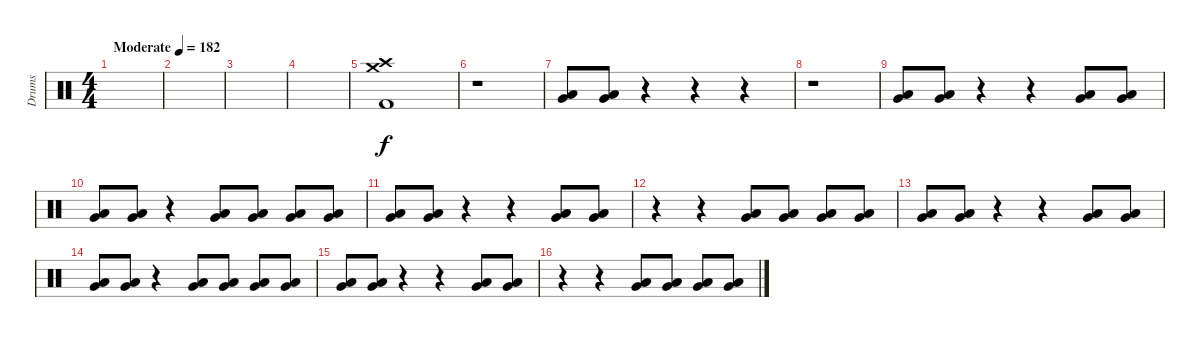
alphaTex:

\track ("Drums" "Drums") {instrument percussion}
\staff
\articulation defaults
\ts (4 4)
\tempo (182 "Moderate")
\clef neutral
\ks c
|
|
|
|
("Crash medium (hit)" "Crash high (hit)" "Kick (hit) 2").1 |
r.1 |
("Low Floor Tom (hit)" "Very Low Tom (hit)").8 ("Low Floor Tom (hit)" "Very Low Tom (hit)").8 r.4 r.4 r.4 |
r.1 |
("Low Floor Tom (hit)" "Very Low Tom (hit)").8 ("Low Floor Tom (hit)" "Very Low Tom (hit)").8 r.4 r.4 ("Low Floor Tom (hit)" "Very Low Tom (hit)").8 ("Low Floor Tom (hit)" "Very Low Tom (hit)").8 |
("Low Floor Tom (hit)" "Very Low Tom (hit)").8 ("Low Floor Tom (hit)" "Very Low Tom (hit)").8 r.4 ("Low Floor Tom (hit)" "Very Low Tom (hit)").8 ("Low Floor Tom (hit)" "Very Low Tom (hit)").8 ("Low Floor Tom (hit)" "Very Low Tom (hit)").8 ("Low Floor Tom (hit)" "Very Low Tom (hit)").8 |
("Low Floor Tom (hit)" "Very Low Tom (hit)").8 ("Low Floor Tom (hit)" "Very Low Tom (hit)").8 r.4 r.4 ("Low Floor Tom (hit)" "Very Low Tom (hit)").8 ("Low Floor Tom (hit)" "Very Low Tom (hit)").8 |
r.4 r.4 ("Low Floor Tom (hit)" "Very Low Tom (hit)").8 ("Low Floor Tom (hit)" "Very Low Tom (hit)").8 ("Low Floor Tom (hit)" "Very Low Tom (hit)").8 ("Low Floor Tom (hit)" "Very Low Tom (hit)").8 |
("Low Floor Tom (hit)" "Very Low Tom (hit)").8 ("Low Floor Tom (hit)" "Very Low Tom (hit)").8 r.4 r.4 ("Low Floor Tom (hit)" "Very Low Tom (hit)").8 ("Low Floor Tom (hit)" "Very Low Tom (hit)").8 |
("Low Floor Tom (hit)" "Very Low Tom (hit)").8 ("Low Floor Tom (hit)" "Very Low Tom (hit)").8 r.4 ("Low Floor Tom (hit)" "Very Low Tom (hit)").8 ("Low Floor Tom (hit)" "Very Low Tom (hit)").8 ("Low Floor Tom (hit)" "Very Low Tom (hit)").8 ("Low Floor Tom (hit)" "Very Low Tom (hit)").8 |
("Low Floor Tom (hit)" "Very Low Tom (hit)").8 ("Low Floor Tom (hit)" "Very Low Tom (hit)").8 r.4 r.4 ("Low Floor Tom (hit)" "Very Low Tom (hit)").8 ("Low Floor Tom (hit)" "Very Low Tom (hit)").8 |
r.4 r.4 ("Low Floor Tom (hit)" "Very Low Tom (hit)").8 ("Low Floor Tom (hit)" "Very Low Tom (hit)").8 ("Low Floor Tom (hit)" "Very Low Tom (hit)").8 ("Low Floor Tom (hit)" "Very Low Tom (hit)").8
